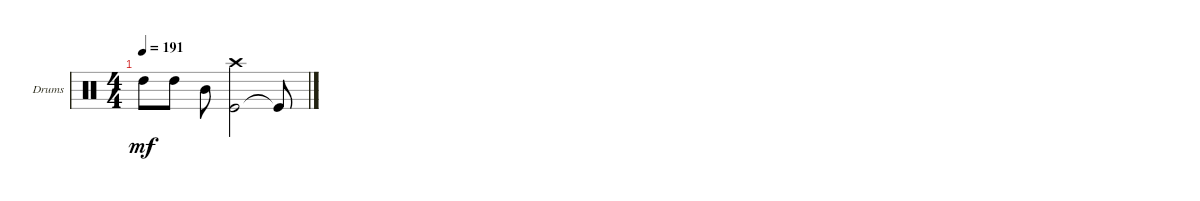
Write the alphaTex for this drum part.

\defaultSystemsLayout 4
\bracketExtendMode groupsimilarinstruments
\firstSystemTrackNameOrientation horizontal
\otherSystemsTrackNameOrientation horizontal
\track ("Drumkit" "Drums") {instrument percussion}
\staff {score}
\articulation defaults
\ts (4 4)
\tempo 191
\clef neutral
\scale
0.333333
\ks c "High Tom (hit)".8{dy mf} "High Tom (hit)".8 "Mid Tom (hit)".8
("Kick (hit)" "Crash high (hit)").2 "Kick (hit)"{t}.8
